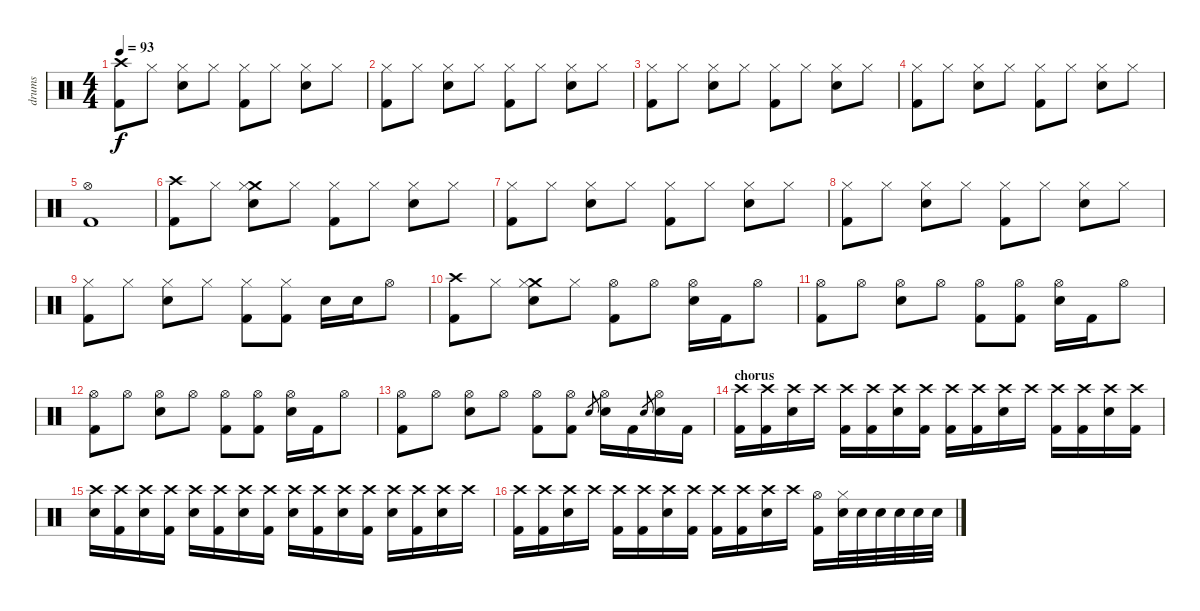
\track ("drums" "drums") {instrument percussion}
\staff {score}
\articulation defaults
\ts (4 4)
\tempo 93
\clef neutral
\ks c
("Crash high (hit)" "Kick (hit) 2").8{dy f} "Hi-Hat (closed)".8 ("Hi-Hat (closed)" "Electric Snare (hit)").8 "Hi-Hat (closed)".8 ("Hi-Hat (closed)" "Kick (hit) 2").8 "Hi-Hat (closed)".8 ("Hi-Hat (closed)" "Electric Snare (hit)").8 "Hi-Hat (closed)".8 |
("Hi-Hat (closed)" "Kick (hit) 2").8 "Hi-Hat (closed)".8 ("Hi-Hat (closed)" "Electric Snare (hit)").8 "Hi-Hat (closed)".8 ("Hi-Hat (closed)" "Kick (hit) 2").8 "Hi-Hat (closed)".8 ("Hi-Hat (closed)" "Electric Snare (hit)").8 "Hi-Hat (closed)".8 |
("Hi-Hat (closed)" "Kick (hit) 2").8 "Hi-Hat (closed)".8 ("Hi-Hat (closed)" "Electric Snare (hit)").8 "Hi-Hat (closed)".8 ("Hi-Hat (closed)" "Kick (hit) 2").8 "Hi-Hat (closed)".8 ("Hi-Hat (closed)" "Electric Snare (hit)").8 "Hi-Hat (closed)".8 |
("Hi-Hat (closed)" "Kick (hit) 2").8 "Hi-Hat (closed)".8 ("Hi-Hat (closed)" "Electric Snare (hit)").8 "Hi-Hat (closed)".8 ("Hi-Hat (closed)" "Kick (hit) 2").8 "Hi-Hat (closed)".8 ("Hi-Hat (closed)" "Electric Snare (hit)").8 "Hi-Hat (closed)".8 |
("Hi-Hat (open)" "Kick (hit) 2").1 |
("Crash high (hit)" "Kick (hit) 2").8 "Hi-Hat (closed)".8 ("Crash medium (hit)" "Hi-Hat (closed)" "Electric Snare (hit)").8 "Hi-Hat (closed)".8 ("Hi-Hat (closed)" "Kick (hit) 2").8 "Hi-Hat (closed)".8 ("Hi-Hat (closed)" "Electric Snare (hit)").8 "Hi-Hat (closed)".8 |
("Hi-Hat (closed)" "Kick (hit) 2").8 "Hi-Hat (closed)".8 ("Hi-Hat (closed)" "Electric Snare (hit)").8 "Hi-Hat (closed)".8 ("Hi-Hat (closed)" "Kick (hit) 2").8 "Hi-Hat (closed)".8 ("Hi-Hat (closed)" "Electric Snare (hit)").8 "Hi-Hat (closed)".8 |
("Hi-Hat (closed)" "Kick (hit) 2").8 "Hi-Hat (closed)".8 ("Hi-Hat (closed)" "Electric Snare (hit)").8 "Hi-Hat (closed)".8 ("Hi-Hat (closed)" "Kick (hit) 2").8 "Hi-Hat (closed)".8 ("Hi-Hat (closed)" "Electric Snare (hit)").8 "Hi-Hat (closed)".8 |
("Hi-Hat (closed)" "Kick (hit) 2").8 "Hi-Hat (closed)".8 ("Hi-Hat (closed)" "Electric Snare (hit)").8 "Hi-Hat (closed)".8 ("Hi-Hat (closed)" "Kick (hit) 2").8 ("Hi-Hat (closed)" "Kick (hit) 2").8 "Electric Snare (hit)".16 "Electric Snare (hit)".16 "Hi-Hat (open)".8 |
("Crash high (hit)" "Kick (hit) 2").8 "Hi-Hat (closed)".8 ("Crash medium (hit)" "Hi-Hat (closed)" "Electric Snare (hit)").8 "Hi-Hat (closed)".8 ("Hi-Hat (open)" "Kick (hit) 2").8 "Hi-Hat (open)".8 ("Hi-Hat (open)" "Electric Snare (hit)").16 "Kick (hit) 2".16 "Hi-Hat (open)".8 |
("Hi-Hat (open)" "Kick (hit) 2").8 "Hi-Hat (open)".8 ("Hi-Hat (open)" "Electric Snare (hit)").8 "Hi-Hat (open)".8 ("Hi-Hat (open)" "Kick (hit) 2").8 ("Hi-Hat (open)" "Kick (hit) 2").8 ("Hi-Hat (open)" "Electric Snare (hit)").16 "Kick (hit) 2".16 "Hi-Hat (open)".8 |
("Hi-Hat (open)" "Kick (hit) 2").8 "Hi-Hat (open)".8 ("Hi-Hat (open)" "Electric Snare (hit)").8 "Hi-Hat (open)".8 ("Hi-Hat (open)" "Kick (hit) 2").8 ("Hi-Hat (open)" "Kick (hit) 2").8 ("Hi-Hat (open)" "Electric Snare (hit)").16 "Kick (hit) 2".16 "Hi-Hat (open)".8 |
("Hi-Hat (open)" "Kick (hit) 2").8 "Hi-Hat (open)".8 ("Hi-Hat (open)" "Electric Snare (hit)").8 "Hi-Hat (open)".8 ("Hi-Hat (open)" "Kick (hit) 2").8 ("Hi-Hat (open)" "Kick (hit) 2").8 "Electric Snare (hit)".8{gr} ("Hi-Hat (open)" "Electric Snare (hit)").16 "Kick (hit) 2".16 "Electric Snare (hit)".8{gr} ("Hi-Hat (open)" "Electric Snare (hit)").16 "Kick (hit) 2".16 |
\section ("" "chorus")
("Crash high (hit)" "Kick (hit) 2").16 ("Crash high (hit)" "Kick (hit) 2").16 ("Crash high (hit)" "Electric Snare (hit)").16 "Crash high (hit)".16 ("Crash high (hit)" "Kick (hit) 2").16 ("Crash high (hit)" "Kick (hit) 2").16 ("Crash high (hit)" "Electric Snare (hit)").16 ("Crash high (hit)" "Kick (hit) 2").16 ("Crash high (hit)" "Kick (hit) 2").16 ("Crash high (hit)" "Kick (hit) 2").16 ("Crash high (hit)" "Electric Snare (hit)").16 "Crash high (hit)".16 ("Crash high (hit)" "Kick (hit) 2").16 ("Crash high (hit)" "Kick (hit) 2").16 ("Crash high (hit)" "Electric Snare (hit)").16 ("Crash high (hit)" "Kick (hit) 2").16 |
("Crash high (hit)" "Electric Snare (hit)").16 ("Crash high (hit)" "Kick (hit) 2").16 ("Crash high (hit)" "Electric Snare (hit)").16 ("Crash high (hit)" "Kick (hit) 2").16 ("Crash high (hit)" "Electric Snare (hit)").16 ("Crash high (hit)" "Kick (hit) 2").16 ("Crash high (hit)" "Electric Snare (hit)").16 ("Crash high (hit)" "Kick (hit) 2").16 ("Crash high (hit)" "Electric Snare (hit)").16 ("Crash high (hit)" "Kick (hit) 2").16 ("Crash high (hit)" "Electric Snare (hit)").16 ("Crash high (hit)" "Kick (hit) 2").16 ("Crash high (hit)" "Electric Snare (hit)").16 ("Crash high (hit)" "Kick (hit) 2").16 ("Crash high (hit)" "Electric Snare (hit)").16 "Crash high (hit)".16 |
("Crash high (hit)" "Kick (hit) 2").16 ("Crash high (hit)" "Kick (hit) 2").16 ("Crash high (hit)" "Electric Snare (hit)").16 "Crash high (hit)".16 ("Crash high (hit)" "Kick (hit) 2").16 ("Crash high (hit)" "Kick (hit) 2").16 ("Crash high (hit)" "Electric Snare (hit)").16 ("Crash high (hit)" "Kick (hit) 2").16 ("Crash high (hit)" "Kick (hit) 2").16 ("Crash high (hit)" "Kick (hit) 2").16 ("Crash high (hit)" "Electric Snare (hit)").16 "Crash high (hit)".16 ("Hi-Hat (open)" "Kick (hit) 2").16 ("Hi-Hat (closed)" "Electric Snare (hit)").32 "Electric Snare (hit)".32 "Electric Snare (hit)".32 "Electric Snare (hit)".32 "Electric Snare (hit)".32 "Electric Snare (hit)".32
